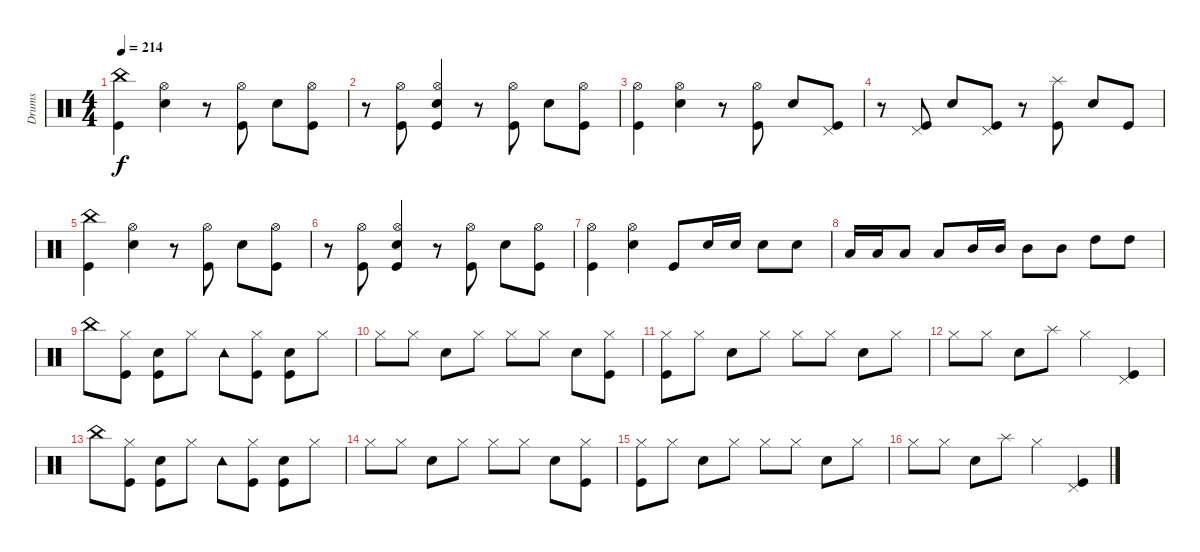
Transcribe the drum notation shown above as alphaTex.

\track ("Drums" "Drums") {instrument percussion}
\staff {score}
\articulation defaults
\ts (4 4)
\tempo 214
\clef neutral
\ks c
("China (hit)" "Kick (hit)").4{dy f} ("Hi-Hat (open)" "Snare (hit) 2").4 r.8 ("Hi-Hat (open)" "Kick (hit)").8 "Snare (hit) 2".8 ("Hi-Hat (open)" "Kick (hit)").8 |
r.8 ("Hi-Hat (open)" "Kick (hit)").8 ("Hi-Hat (open)" "Snare (hit) 2" "Kick (hit)").4 r.8 ("Hi-Hat (open)" "Kick (hit)").8 "Snare (hit) 2".8 ("Hi-Hat (open)" "Kick (hit)").8 |
("Hi-Hat (open)" "Kick (hit)").4 ("Hi-Hat (open)" "Snare (hit) 2").4 r.8 ("Hi-Hat (open)" "Kick (hit)").8 "Snare (hit) 2".8 ("Pedal Hi-Hat (hit)" "Kick (hit)").8 |
r.8 ("Pedal Hi-Hat (hit)" "Kick (hit)").8 "Snare (hit) 2".8 ("Pedal Hi-Hat (hit)" "Kick (hit)").8 r.8 ("Splash (hit)" "Kick (hit)").8 "Snare (hit) 2".8 "Kick (hit)".8 |
("China (hit)" "Kick (hit)").4 ("Hi-Hat (open)" "Snare (hit) 2").4 r.8 ("Hi-Hat (open)" "Kick (hit)").8 "Snare (hit) 2".8 ("Hi-Hat (open)" "Kick (hit)").8 |
r.8 ("Hi-Hat (open)" "Kick (hit)").8 ("Hi-Hat (open)" "Snare (hit) 2" "Kick (hit)").4 r.8 ("Hi-Hat (open)" "Kick (hit)").8 "Snare (hit) 2".8 ("Hi-Hat (open)" "Kick (hit)").8 |
("Hi-Hat (open)" "Kick (hit)").4 ("Hi-Hat (open)" "Snare (hit) 2").4 "Kick (hit)".8 "Snare (hit) 2".16 "Snare (hit) 2".16 "Snare (hit) 2".8 "Snare (hit) 2".8 |
"Low Tom (hit)".16 "Low Tom (hit)".16 "Low Tom (hit)".8 "Low Tom (hit)".8 "Mid Tom (hit)".16 "Mid Tom (hit)".16 "Mid Tom (hit)".8 "Mid Tom (hit)".8 "High Tom (hit)".8 "High Tom (hit)".8 |
"China (hit)".8 ("Hi-Hat (closed)" "Kick (hit)").8 ("Snare (hit) 2" "Kick (hit)").8 "Hi-Hat (closed)".8 "Tambourine (hit)".8 ("Hi-Hat (closed)" "Kick (hit)").8 ("Snare (hit) 2" "Kick (hit)").8 "Hi-Hat (closed)".8 |
"Hi-Hat (closed)".8 "Hi-Hat (closed)".8 "Snare (hit) 2".8 "Hi-Hat (closed)".8 "Hi-Hat (closed)".8 "Hi-Hat (closed)".8 "Snare (hit) 2".8 ("Hi-Hat (closed)" "Kick (hit)").8 |
("Hi-Hat (closed)" "Kick (hit)").8 "Hi-Hat (closed)".8 "Snare (hit) 2".8 "Hi-Hat (closed)".8 "Hi-Hat (closed)".8 "Hi-Hat (closed)".8 "Snare (hit) 2".8 "Hi-Hat (closed)".8 |
"Hi-Hat (closed)".8 "Hi-Hat (closed)".8 "Snare (hit) 2".8 "Splash (hit)".8 "Hi-Hat (closed)".4 ("Pedal Hi-Hat (hit)" "Kick (hit)").4 |
"China (hit)".8 ("Hi-Hat (closed)" "Kick (hit)").8 ("Snare (hit) 2" "Kick (hit)").8 "Hi-Hat (closed)".8 "Tambourine (hit)".8 ("Hi-Hat (closed)" "Kick (hit)").8 ("Snare (hit) 2" "Kick (hit)").8 "Hi-Hat (closed)".8 |
"Hi-Hat (closed)".8 "Hi-Hat (closed)".8 "Snare (hit) 2".8 "Hi-Hat (closed)".8 "Hi-Hat (closed)".8 "Hi-Hat (closed)".8 "Snare (hit) 2".8 ("Hi-Hat (closed)" "Kick (hit)").8 |
("Hi-Hat (closed)" "Kick (hit)").8 "Hi-Hat (closed)".8 "Snare (hit) 2".8 "Hi-Hat (closed)".8 "Hi-Hat (closed)".8 "Hi-Hat (closed)".8 "Snare (hit) 2".8 "Hi-Hat (closed)".8 |
"Hi-Hat (closed)".8 "Hi-Hat (closed)".8 "Snare (hit) 2".8 "Splash (hit)".8 "Hi-Hat (closed)".4 ("Pedal Hi-Hat (hit)" "Kick (hit)").4
